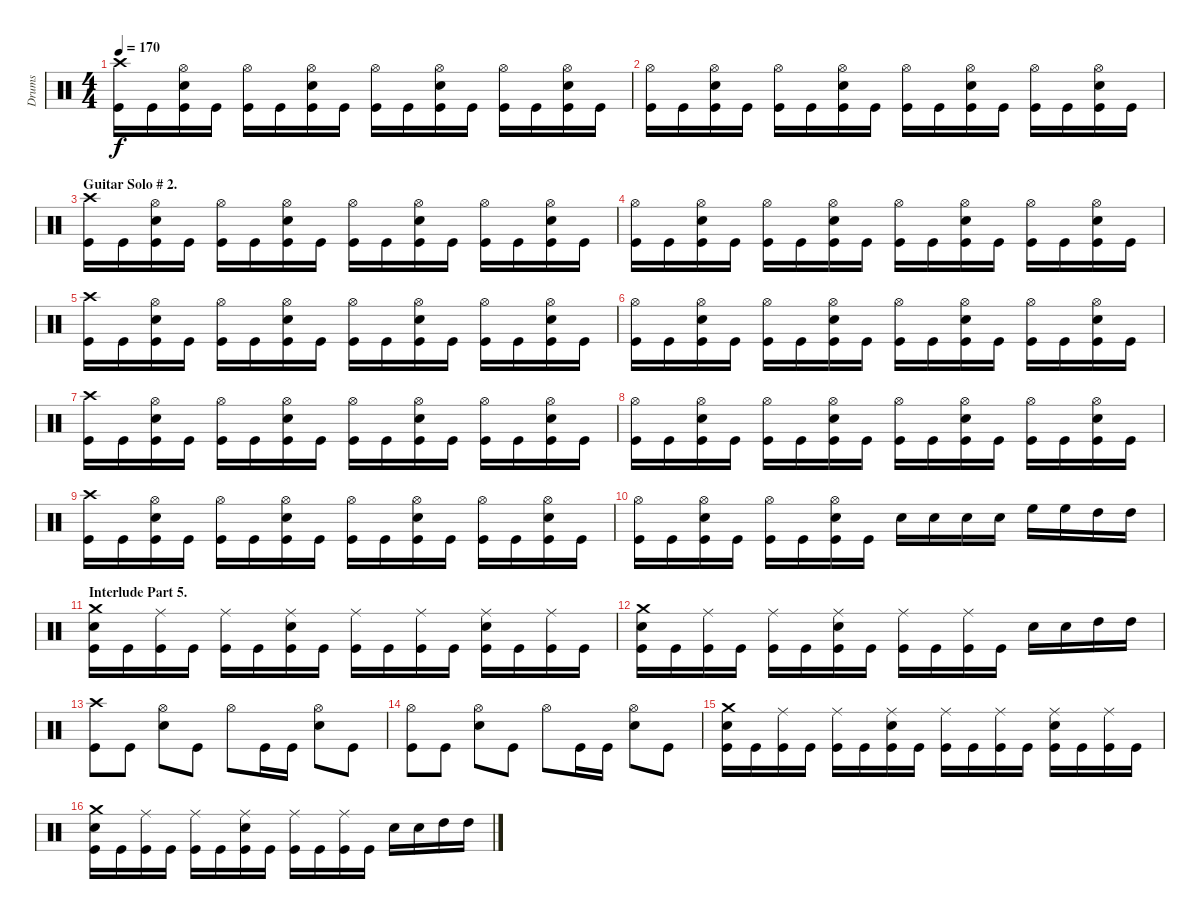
\track ("Drums" "Drums") {instrument percussion}
\staff {score}
\articulation defaults
\ts (4 4)
\tempo 170
\clef neutral
\ks c
("Crash high (hit)" "Kick (hit)").16{dy f} "Kick (hit)".16 ("Hi-Hat (open)" "Snare (hit) 2" "Kick (hit)").16 "Kick (hit)".16 ("Hi-Hat (open)" "Kick (hit)").16 "Kick (hit)".16 ("Hi-Hat (open)" "Snare (hit) 2" "Kick (hit)").16 "Kick (hit)".16 ("Hi-Hat (open)" "Kick (hit)").16 "Kick (hit)".16 ("Hi-Hat (open)" "Snare (hit) 2" "Kick (hit)").16 "Kick (hit)".16 ("Hi-Hat (open)" "Kick (hit)").16 "Kick (hit)".16 ("Hi-Hat (open)" "Snare (hit) 2" "Kick (hit)").16 "Kick (hit)".16 |
("Hi-Hat (open)" "Kick (hit)").16 "Kick (hit)".16 ("Hi-Hat (open)" "Snare (hit) 2" "Kick (hit)").16 "Kick (hit)".16 ("Hi-Hat (open)" "Kick (hit)").16 "Kick (hit)".16 ("Hi-Hat (open)" "Snare (hit) 2" "Kick (hit)").16 "Kick (hit)".16 ("Hi-Hat (open)" "Kick (hit)").16 "Kick (hit)".16 ("Hi-Hat (open)" "Snare (hit) 2" "Kick (hit)").16 "Kick (hit)".16 ("Hi-Hat (open)" "Kick (hit)").16 "Kick (hit)".16 ("Hi-Hat (open)" "Snare (hit) 2" "Kick (hit)").16 "Kick (hit)".16 |
\section ("" "Guitar Solo # 2.")
("Crash high (hit)" "Kick (hit)").16 "Kick (hit)".16 ("Hi-Hat (open)" "Snare (hit) 2" "Kick (hit)").16 "Kick (hit)".16 ("Hi-Hat (open)" "Kick (hit)").16 "Kick (hit)".16 ("Hi-Hat (open)" "Snare (hit) 2" "Kick (hit)").16 "Kick (hit)".16 ("Hi-Hat (open)" "Kick (hit)").16 "Kick (hit)".16 ("Hi-Hat (open)" "Snare (hit) 2" "Kick (hit)").16 "Kick (hit)".16 ("Hi-Hat (open)" "Kick (hit)").16 "Kick (hit)".16 ("Hi-Hat (open)" "Snare (hit) 2" "Kick (hit)").16 "Kick (hit)".16 |
("Hi-Hat (open)" "Kick (hit)").16 "Kick (hit)".16 ("Hi-Hat (open)" "Snare (hit) 2" "Kick (hit)").16 "Kick (hit)".16 ("Hi-Hat (open)" "Kick (hit)").16 "Kick (hit)".16 ("Hi-Hat (open)" "Snare (hit) 2" "Kick (hit)").16 "Kick (hit)".16 ("Hi-Hat (open)" "Kick (hit)").16 "Kick (hit)".16 ("Hi-Hat (open)" "Snare (hit) 2" "Kick (hit)").16 "Kick (hit)".16 ("Hi-Hat (open)" "Kick (hit)").16 "Kick (hit)".16 ("Hi-Hat (open)" "Snare (hit) 2" "Kick (hit)").16 "Kick (hit)".16 |
("Crash high (hit)" "Kick (hit)").16 "Kick (hit)".16 ("Hi-Hat (open)" "Snare (hit) 2" "Kick (hit)").16 "Kick (hit)".16 ("Hi-Hat (open)" "Kick (hit)").16 "Kick (hit)".16 ("Hi-Hat (open)" "Snare (hit) 2" "Kick (hit)").16 "Kick (hit)".16 ("Hi-Hat (open)" "Kick (hit)").16 "Kick (hit)".16 ("Hi-Hat (open)" "Snare (hit) 2" "Kick (hit)").16 "Kick (hit)".16 ("Hi-Hat (open)" "Kick (hit)").16 "Kick (hit)".16 ("Hi-Hat (open)" "Snare (hit) 2" "Kick (hit)").16 "Kick (hit)".16 |
("Hi-Hat (open)" "Kick (hit)").16 "Kick (hit)".16 ("Hi-Hat (open)" "Snare (hit) 2" "Kick (hit)").16 "Kick (hit)".16 ("Hi-Hat (open)" "Kick (hit)").16 "Kick (hit)".16 ("Hi-Hat (open)" "Snare (hit) 2" "Kick (hit)").16 "Kick (hit)".16 ("Hi-Hat (open)" "Kick (hit)").16 "Kick (hit)".16 ("Hi-Hat (open)" "Snare (hit) 2" "Kick (hit)").16 "Kick (hit)".16 ("Hi-Hat (open)" "Kick (hit)").16 "Kick (hit)".16 ("Hi-Hat (open)" "Snare (hit) 2" "Kick (hit)").16 "Kick (hit)".16 |
("Crash high (hit)" "Kick (hit)").16 "Kick (hit)".16 ("Hi-Hat (open)" "Snare (hit) 2" "Kick (hit)").16 "Kick (hit)".16 ("Hi-Hat (open)" "Kick (hit)").16 "Kick (hit)".16 ("Hi-Hat (open)" "Snare (hit) 2" "Kick (hit)").16 "Kick (hit)".16 ("Hi-Hat (open)" "Kick (hit)").16 "Kick (hit)".16 ("Hi-Hat (open)" "Snare (hit) 2" "Kick (hit)").16 "Kick (hit)".16 ("Hi-Hat (open)" "Kick (hit)").16 "Kick (hit)".16 ("Hi-Hat (open)" "Snare (hit) 2" "Kick (hit)").16 "Kick (hit)".16 |
("Hi-Hat (open)" "Kick (hit)").16 "Kick (hit)".16 ("Hi-Hat (open)" "Snare (hit) 2" "Kick (hit)").16 "Kick (hit)".16 ("Hi-Hat (open)" "Kick (hit)").16 "Kick (hit)".16 ("Hi-Hat (open)" "Snare (hit) 2" "Kick (hit)").16 "Kick (hit)".16 ("Hi-Hat (open)" "Kick (hit)").16 "Kick (hit)".16 ("Hi-Hat (open)" "Snare (hit) 2" "Kick (hit)").16 "Kick (hit)".16 ("Hi-Hat (open)" "Kick (hit)").16 "Kick (hit)".16 ("Hi-Hat (open)" "Snare (hit) 2" "Kick (hit)").16 "Kick (hit)".16 |
("Crash high (hit)" "Kick (hit)").16 "Kick (hit)".16 ("Hi-Hat (open)" "Snare (hit) 2" "Kick (hit)").16 "Kick (hit)".16 ("Hi-Hat (open)" "Kick (hit)").16 "Kick (hit)".16 ("Hi-Hat (open)" "Snare (hit) 2" "Kick (hit)").16 "Kick (hit)".16 ("Hi-Hat (open)" "Kick (hit)").16 "Kick (hit)".16 ("Hi-Hat (open)" "Snare (hit) 2" "Kick (hit)").16 "Kick (hit)".16 ("Hi-Hat (open)" "Kick (hit)").16 "Kick (hit)".16 ("Hi-Hat (open)" "Snare (hit) 2" "Kick (hit)").16 "Kick (hit)".16 |
("Hi-Hat (open)" "Kick (hit)").16 "Kick (hit)".16 ("Hi-Hat (open)" "Snare (hit) 2" "Kick (hit)").16 "Kick (hit)".16 ("Hi-Hat (open)" "Kick (hit)").16 "Kick (hit)".16 ("Hi-Hat (open)" "Snare (hit) 2" "Kick (hit)").16 "Kick (hit)".16 "Snare (hit) 2".16 "Snare (hit) 2".16 "Snare (hit) 2".16 "Snare (hit) 2".16 "High Floor Tom (hit)".16 "High Floor Tom (hit)".16 "High Tom (hit)".16 "High Tom (hit)".16 |
\section ("" "Interlude Part 5.")
("Crash medium (hit)" "Snare (hit) 2" "Kick (hit)").16 "Kick (hit)".16 ("Ride (middle)" "Kick (hit)").16 "Kick (hit)".16 ("Ride (middle)" "Kick (hit)").16 "Kick (hit)".16 ("Ride (middle)" "Snare (hit) 2" "Kick (hit)").16 "Kick (hit)".16 ("Ride (middle)" "Kick (hit)").16 "Kick (hit)".16 ("Ride (middle)" "Kick (hit)").16 "Kick (hit)".16 ("Ride (middle)" "Snare (hit) 2" "Kick (hit)").16 "Kick (hit)".16 ("Ride (middle)" "Kick (hit)").16 "Kick (hit)".16 |
("Crash medium (hit)" "Snare (hit) 2" "Kick (hit)").16 "Kick (hit)".16 ("Ride (middle)" "Kick (hit)").16 "Kick (hit)".16 ("Ride (middle)" "Kick (hit)").16 "Kick (hit)".16 ("Ride (middle)" "Snare (hit) 2" "Kick (hit)").16 "Kick (hit)".16 ("Ride (middle)" "Kick (hit)").16 "Kick (hit)".16 ("Ride (middle)" "Kick (hit)").16 "Kick (hit)".16 "Snare (hit) 2".16 "Snare (hit) 2".16 "High Tom (hit)".16 "High Tom (hit)".16 |
("Crash high (hit)" "Kick (hit)").8 "Kick (hit)".8 ("Hi-Hat (open)" "Snare (hit) 2").8 "Kick (hit)".8 "Hi-Hat (open)".8 "Kick (hit)".16 "Kick (hit)".16 ("Hi-Hat (open)" "Snare (hit) 2").8 "Kick (hit)".8 |
("Hi-Hat (open)" "Kick (hit)").8 "Kick (hit)".8 ("Hi-Hat (open)" "Snare (hit) 2").8 "Kick (hit)".8 "Hi-Hat (open)".8 "Kick (hit)".16 "Kick (hit)".16 ("Hi-Hat (open)" "Snare (hit) 2").8 "Kick (hit)".8 |
("Crash medium (hit)" "Snare (hit) 2" "Kick (hit)").16 "Kick (hit)".16 ("Ride (middle)" "Kick (hit)").16 "Kick (hit)".16 ("Ride (middle)" "Kick (hit)").16 "Kick (hit)".16 ("Ride (middle)" "Snare (hit) 2" "Kick (hit)").16 "Kick (hit)".16 ("Ride (middle)" "Kick (hit)").16 "Kick (hit)".16 ("Ride (middle)" "Kick (hit)").16 "Kick (hit)".16 ("Ride (middle)" "Snare (hit) 2" "Kick (hit)").16 "Kick (hit)".16 ("Ride (middle)" "Kick (hit)").16 "Kick (hit)".16 |
("Crash medium (hit)" "Snare (hit) 2" "Kick (hit)").16 "Kick (hit)".16 ("Ride (middle)" "Kick (hit)").16 "Kick (hit)".16 ("Ride (middle)" "Kick (hit)").16 "Kick (hit)".16 ("Ride (middle)" "Snare (hit) 2" "Kick (hit)").16 "Kick (hit)".16 ("Ride (middle)" "Kick (hit)").16 "Kick (hit)".16 ("Ride (middle)" "Kick (hit)").16 "Kick (hit)".16 "Snare (hit) 2".16 "Snare (hit) 2".16 "High Tom (hit)".16 "High Tom (hit)".16
